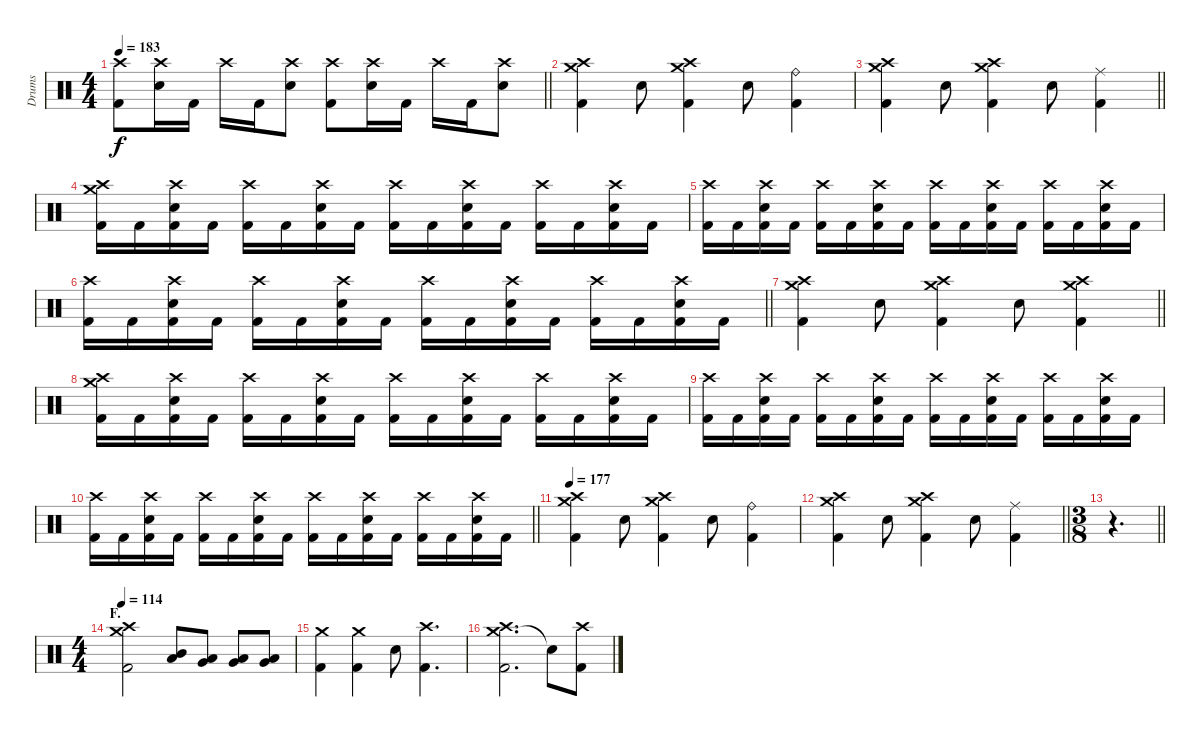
\track ("Drums" "Drums") {instrument percussion}
\staff {score}
\articulation defaults
\ts (4 4)
\tempo 183
\clef neutral
\barLineRight lightlight
\ks c
("Crash high (hit)" "Kick (hit) 2").8{dy f} ("Crash high (hit)" "Electric Snare (hit)").16 "Kick (hit) 2".16 "Crash high (hit)".16 "Kick (hit) 2".16 ("Crash high (hit)" "Electric Snare (hit)").8 ("Crash high (hit)" "Kick (hit) 2").8 ("Crash high (hit)" "Electric Snare (hit)").16 "Kick (hit) 2".16 "Crash high (hit)".16 "Kick (hit) 2".16 ("Crash high (hit)" "Electric Snare (hit)").8 |
("Crash medium (hit)" "Crash high (hit)" "Kick (hit) 2").4 "Electric Snare (hit)".8 ("Crash medium (hit)" "Crash high (hit)" "Kick (hit) 2").4 "Electric Snare (hit)".8 ("Ride (bell)" "Kick (hit) 2").4 |
\barLineRight lightlight
("Crash medium (hit)" "Crash high (hit)" "Kick (hit) 2").4 "Electric Snare (hit)".8 ("Crash medium (hit)" "Crash high (hit)" "Kick (hit) 2").4 "Electric Snare (hit)".8 ("Ride (middle)" "Kick (hit) 2").4 |
("Crash medium (hit)" "Crash high (hit)" "Kick (hit) 2").16 "Kick (hit) 2".16 ("Crash high (hit)" "Electric Snare (hit)" "Kick (hit) 2").16 "Kick (hit) 2".16 ("Crash high (hit)" "Kick (hit) 2").16 "Kick (hit) 2".16 ("Crash high (hit)" "Electric Snare (hit)" "Kick (hit) 2").16 "Kick (hit) 2".16 ("Crash high (hit)" "Kick (hit) 2").16 "Kick (hit) 2".16 ("Crash high (hit)" "Electric Snare (hit)" "Kick (hit) 2").16 "Kick (hit) 2".16 ("Crash high (hit)" "Kick (hit) 2").16 "Kick (hit) 2".16 ("Crash high (hit)" "Electric Snare (hit)" "Kick (hit) 2").16 "Kick (hit) 2".16 |
("Crash high (hit)" "Kick (hit) 2").16 "Kick (hit) 2".16 ("Crash high (hit)" "Electric Snare (hit)" "Kick (hit) 2").16 "Kick (hit) 2".16 ("Crash high (hit)" "Kick (hit) 2").16 "Kick (hit) 2".16 ("Crash high (hit)" "Electric Snare (hit)" "Kick (hit) 2").16 "Kick (hit) 2".16 ("Crash high (hit)" "Kick (hit) 2").16 "Kick (hit) 2".16 ("Crash high (hit)" "Electric Snare (hit)" "Kick (hit) 2").16 "Kick (hit) 2".16 ("Crash high (hit)" "Kick (hit) 2").16 "Kick (hit) 2".16 ("Crash high (hit)" "Electric Snare (hit)" "Kick (hit) 2").16 "Kick (hit) 2".16 |
\barLineRight lightlight
("Crash high (hit)" "Kick (hit) 2").16 "Kick (hit) 2".16 ("Crash high (hit)" "Electric Snare (hit)" "Kick (hit) 2").16 "Kick (hit) 2".16 ("Crash high (hit)" "Kick (hit) 2").16 "Kick (hit) 2".16 ("Crash high (hit)" "Electric Snare (hit)" "Kick (hit) 2").16 "Kick (hit) 2".16 ("Crash high (hit)" "Kick (hit) 2").16 "Kick (hit) 2".16 ("Crash high (hit)" "Electric Snare (hit)" "Kick (hit) 2").16 "Kick (hit) 2".16 ("Crash high (hit)" "Kick (hit) 2").16 "Kick (hit) 2".16 ("Crash high (hit)" "Electric Snare (hit)" "Kick (hit) 2").16 "Kick (hit) 2".16 |
\section ("" "")
\barLineRight lightlight
("Crash medium (hit)" "Crash high (hit)" "Kick (hit) 2").4 "Electric Snare (hit)".8 ("Crash medium (hit)" "Crash high (hit)" "Kick (hit) 2").4 "Electric Snare (hit)".8 ("Crash medium (hit)" "Crash high (hit)" "Kick (hit) 2").4 |
\section ("" "")
("Crash medium (hit)" "Crash high (hit)" "Kick (hit) 2").16 "Kick (hit) 2".16 ("Crash high (hit)" "Electric Snare (hit)" "Kick (hit) 2").16 "Kick (hit) 2".16 ("Crash high (hit)" "Kick (hit) 2").16 "Kick (hit) 2".16 ("Crash high (hit)" "Electric Snare (hit)" "Kick (hit) 2").16 "Kick (hit) 2".16 ("Crash high (hit)" "Kick (hit) 2").16 "Kick (hit) 2".16 ("Crash high (hit)" "Electric Snare (hit)" "Kick (hit) 2").16 "Kick (hit) 2".16 ("Crash high (hit)" "Kick (hit) 2").16 "Kick (hit) 2".16 ("Crash high (hit)" "Electric Snare (hit)" "Kick (hit) 2").16 "Kick (hit) 2".16 |
("Crash high (hit)" "Kick (hit) 2").16 "Kick (hit) 2".16 ("Crash high (hit)" "Electric Snare (hit)" "Kick (hit) 2").16 "Kick (hit) 2".16 ("Crash high (hit)" "Kick (hit) 2").16 "Kick (hit) 2".16 ("Crash high (hit)" "Electric Snare (hit)" "Kick (hit) 2").16 "Kick (hit) 2".16 ("Crash high (hit)" "Kick (hit) 2").16 "Kick (hit) 2".16 ("Crash high (hit)" "Electric Snare (hit)" "Kick (hit) 2").16 "Kick (hit) 2".16 ("Crash high (hit)" "Kick (hit) 2").16 "Kick (hit) 2".16 ("Crash high (hit)" "Electric Snare (hit)" "Kick (hit) 2").16 "Kick (hit) 2".16 |
\barLineRight lightlight
("Crash high (hit)" "Kick (hit) 2").16 "Kick (hit) 2".16 ("Crash high (hit)" "Electric Snare (hit)" "Kick (hit) 2").16 "Kick (hit) 2".16 ("Crash high (hit)" "Kick (hit) 2").16 "Kick (hit) 2".16 ("Crash high (hit)" "Electric Snare (hit)" "Kick (hit) 2").16 "Kick (hit) 2".16 ("Crash high (hit)" "Kick (hit) 2").16 "Kick (hit) 2".16 ("Crash high (hit)" "Electric Snare (hit)" "Kick (hit) 2").16 "Kick (hit) 2".16 ("Crash high (hit)" "Kick (hit) 2").16 "Kick (hit) 2".16 ("Crash high (hit)" "Electric Snare (hit)" "Kick (hit) 2").16 "Kick (hit) 2".16 |
\section ("" "")
\tempo 177
("Crash medium (hit)" "Crash high (hit)" "Kick (hit) 2").4 "Electric Snare (hit)".8 ("Crash medium (hit)" "Crash high (hit)" "Kick (hit) 2").4 "Electric Snare (hit)".8 ("Ride (bell)" "Kick (hit) 2").4 |
\barLineRight lightlight
("Crash medium (hit)" "Crash high (hit)" "Kick (hit) 2").4 "Electric Snare (hit)".8 ("Crash medium (hit)" "Crash high (hit)" "Kick (hit) 2").4 "Electric Snare (hit)".8 ("Ride (middle)" "Kick (hit) 2").4 |
\ts (3 8)
\section ("" "")
\barLineRight lightlight
r.4{d} |
\ts (4 4)
\section ("" "F.")
\tempo 114
("Crash medium (hit)" "Crash high (hit)" "Kick (hit) 2").2 ("Mid Tom (hit)" "Low Tom (hit)").8 ("Low Tom (hit)" "Very Low Tom (hit)").8 ("Low Tom (hit)" "Very Low Tom (hit)").8 ("Very Low Tom (hit)" "Low Floor Tom (hit)").8 |
("Crash medium (hit)" "Kick (hit) 2").4 ("Crash medium (hit)" "Kick (hit) 2").4 "Electric Snare (hit)".8 ("Crash high (hit)" "Kick (hit) 2").4{d} |
("Crash medium (hit)" "Crash high (hit)" "Kick (hit) 2").2{d} "Snare (hit)"{t}.8 ("Crash high (hit)" "Kick (hit) 2").8
